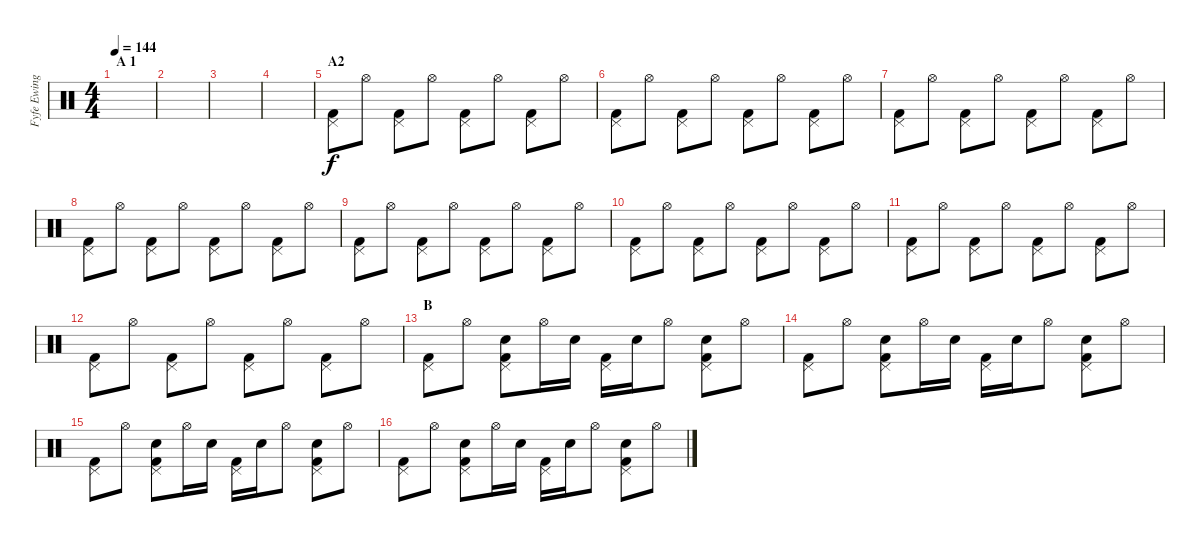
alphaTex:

\track ("Fyfe Ewing" "Fyfe Ewing") {instrument percussion}
\staff {score}
\articulation defaults
\ts (4 4)
\section ("" "A 1")
\tempo 144
\clef neutral
\ks c
|
|
|
|
\section ("" "A2")
("Pedal Hi-Hat (hit)" "Kick (hit) 2").8 "Hi-Hat (open)".8 ("Pedal Hi-Hat (hit)" "Kick (hit) 2").8 "Hi-Hat (open)".8 ("Pedal Hi-Hat (hit)" "Kick (hit) 2").8 "Hi-Hat (open)".8 ("Pedal Hi-Hat (hit)" "Kick (hit) 2").8 "Hi-Hat (open)".8 |
("Pedal Hi-Hat (hit)" "Kick (hit) 2").8 "Hi-Hat (open)".8 ("Pedal Hi-Hat (hit)" "Kick (hit) 2").8 "Hi-Hat (open)".8 ("Pedal Hi-Hat (hit)" "Kick (hit) 2").8 "Hi-Hat (open)".8 ("Pedal Hi-Hat (hit)" "Kick (hit) 2").8 "Hi-Hat (open)".8 |
("Pedal Hi-Hat (hit)" "Kick (hit) 2").8 "Hi-Hat (open)".8 ("Pedal Hi-Hat (hit)" "Kick (hit) 2").8 "Hi-Hat (open)".8 ("Pedal Hi-Hat (hit)" "Kick (hit) 2").8 "Hi-Hat (open)".8 ("Pedal Hi-Hat (hit)" "Kick (hit) 2").8 "Hi-Hat (open)".8 |
("Pedal Hi-Hat (hit)" "Kick (hit) 2").8 "Hi-Hat (open)".8 ("Pedal Hi-Hat (hit)" "Kick (hit) 2").8 "Hi-Hat (open)".8 ("Pedal Hi-Hat (hit)" "Kick (hit) 2").8 "Hi-Hat (open)".8 ("Pedal Hi-Hat (hit)" "Kick (hit) 2").8 "Hi-Hat (open)".8 |
("Pedal Hi-Hat (hit)" "Kick (hit) 2").8 "Hi-Hat (open)".8 ("Pedal Hi-Hat (hit)" "Kick (hit) 2").8 "Hi-Hat (open)".8 ("Pedal Hi-Hat (hit)" "Kick (hit) 2").8 "Hi-Hat (open)".8 ("Pedal Hi-Hat (hit)" "Kick (hit) 2").8 "Hi-Hat (open)".8 |
("Pedal Hi-Hat (hit)" "Kick (hit) 2").8 "Hi-Hat (open)".8 ("Pedal Hi-Hat (hit)" "Kick (hit) 2").8 "Hi-Hat (open)".8 ("Pedal Hi-Hat (hit)" "Kick (hit) 2").8 "Hi-Hat (open)".8 ("Pedal Hi-Hat (hit)" "Kick (hit) 2").8 "Hi-Hat (open)".8 |
("Pedal Hi-Hat (hit)" "Kick (hit) 2").8 "Hi-Hat (open)".8 ("Pedal Hi-Hat (hit)" "Kick (hit) 2").8 "Hi-Hat (open)".8 ("Pedal Hi-Hat (hit)" "Kick (hit) 2").8 "Hi-Hat (open)".8 ("Pedal Hi-Hat (hit)" "Kick (hit) 2").8 "Hi-Hat (open)".8 |
("Pedal Hi-Hat (hit)" "Kick (hit) 2").8 "Hi-Hat (open)".8 ("Pedal Hi-Hat (hit)" "Kick (hit) 2").8 "Hi-Hat (open)".8 ("Pedal Hi-Hat (hit)" "Kick (hit) 2").8 "Hi-Hat (open)".8 ("Pedal Hi-Hat (hit)" "Kick (hit) 2").8 "Hi-Hat (open)".8 |
\section ("" "B")
("Pedal Hi-Hat (hit)" "Kick (hit) 2").8 "Hi-Hat (open)".8 ("Pedal Hi-Hat (hit)" "Snare (hit) 2" "Kick (hit) 2").8 "Hi-Hat (open)".16 "Snare (hit) 2".16 ("Pedal Hi-Hat (hit)" "Kick (hit) 2").16 "Snare (hit) 2".16 "Hi-Hat (open)".8 ("Pedal Hi-Hat (hit)" "Snare (hit) 2" "Kick (hit) 2").8 "Hi-Hat (open)".8 |
("Pedal Hi-Hat (hit)" "Kick (hit) 2").8 "Hi-Hat (open)".8 ("Pedal Hi-Hat (hit)" "Snare (hit) 2" "Kick (hit) 2").8 "Hi-Hat (open)".16 "Snare (hit) 2".16 ("Pedal Hi-Hat (hit)" "Kick (hit) 2").16 "Snare (hit) 2".16 "Hi-Hat (open)".8 ("Pedal Hi-Hat (hit)" "Snare (hit) 2" "Kick (hit) 2").8 "Hi-Hat (open)".8 |
("Pedal Hi-Hat (hit)" "Kick (hit) 2").8 "Hi-Hat (open)".8 ("Pedal Hi-Hat (hit)" "Snare (hit) 2" "Kick (hit) 2").8 "Hi-Hat (open)".16 "Snare (hit) 2".16 ("Pedal Hi-Hat (hit)" "Kick (hit) 2").16 "Snare (hit) 2".16 "Hi-Hat (open)".8 ("Pedal Hi-Hat (hit)" "Snare (hit) 2" "Kick (hit) 2").8 "Hi-Hat (open)".8 |
("Pedal Hi-Hat (hit)" "Kick (hit) 2").8 "Hi-Hat (open)".8 ("Pedal Hi-Hat (hit)" "Snare (hit) 2" "Kick (hit) 2").8 "Hi-Hat (open)".16 "Snare (hit) 2".16 ("Pedal Hi-Hat (hit)" "Kick (hit) 2").16 "Snare (hit) 2".16 "Hi-Hat (open)".8 ("Pedal Hi-Hat (hit)" "Snare (hit) 2" "Kick (hit) 2").8 "Hi-Hat (open)".8
